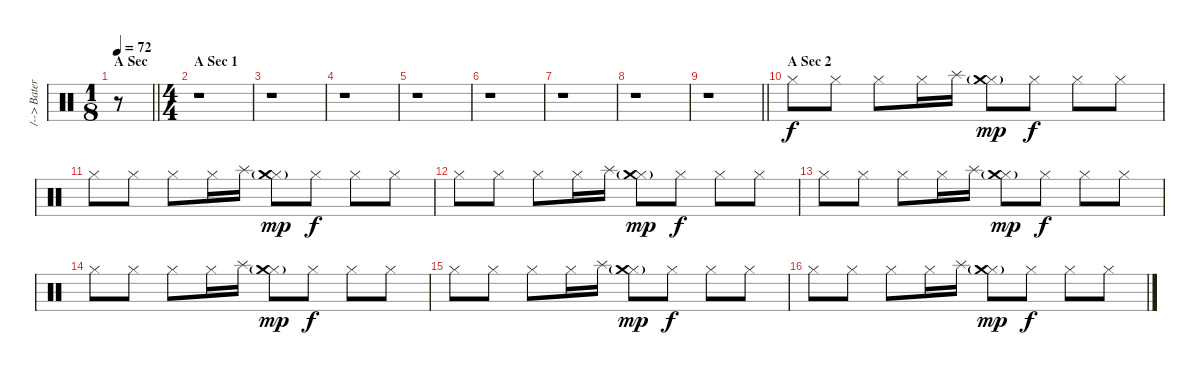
\track ("/--> Bateria <---/" "/--> Bater") {instrument percussion}
\staff {score}
\articulation defaults
\ts (1 8)
\section ("" "A Sec")
\tempo 72
\clef neutral
\barLineRight lightlight
\ks c
r.8{dy f} |
\ts (4 4)
\section ("" "A Sec 1")
r.1 |
r.1 |
r.1 |
r.1 |
r.1 |
r.1 |
r.1 |
\barLineRight lightlight
r.1 |
\section ("" "A Sec 2")
"Hi-Hat (closed)".8 "Hi-Hat (closed)".8 "Hi-Hat (closed)".8 "Hi-Hat (closed)".16{txt ""} "Splash (hit)".16 ("Hi-Hat (closed)" "Crash medium (hit)"{g}).8{dy mp} "Hi-Hat (closed)".8{dy f} "Hi-Hat (closed)".8 "Hi-Hat (closed)".8 |
"Hi-Hat (closed)".8 "Hi-Hat (closed)".8 "Hi-Hat (closed)".8 "Hi-Hat (closed)".16 "Splash (hit)".16 ("Hi-Hat (closed)" "Crash medium (hit)"{g}).8{dy mp} "Hi-Hat (closed)".8{dy f} "Hi-Hat (closed)".8 "Hi-Hat (closed)".8 |
"Hi-Hat (closed)".8 "Hi-Hat (closed)".8 "Hi-Hat (closed)".8 "Hi-Hat (closed)".16 "Splash (hit)".16 ("Hi-Hat (closed)" "Crash medium (hit)"{g}).8{dy mp} "Hi-Hat (closed)".8{dy f} "Hi-Hat (closed)".8 "Hi-Hat (closed)".8 |
"Hi-Hat (closed)".8 "Hi-Hat (closed)".8 "Hi-Hat (closed)".8 "Hi-Hat (closed)".16 "Splash (hit)".16 ("Hi-Hat (closed)" "Crash medium (hit)"{g}).8{dy mp} "Hi-Hat (closed)".8{dy f} "Hi-Hat (closed)".8 "Hi-Hat (closed)".8 |
"Hi-Hat (closed)".8 "Hi-Hat (closed)".8 "Hi-Hat (closed)".8 "Hi-Hat (closed)".16 "Splash (hit)".16 ("Hi-Hat (closed)" "Crash medium (hit)"{g}).8{dy mp} "Hi-Hat (closed)".8{dy f} "Hi-Hat (closed)".8 "Hi-Hat (closed)".8 |
"Hi-Hat (closed)".8 "Hi-Hat (closed)".8 "Hi-Hat (closed)".8 "Hi-Hat (closed)".16{txt ""} "Splash (hit)".16 ("Hi-Hat (closed)" "Crash medium (hit)"{g}).8{dy mp} "Hi-Hat (closed)".8{dy f} "Hi-Hat (closed)".8 "Hi-Hat (closed)".8 |
"Hi-Hat (closed)".8 "Hi-Hat (closed)".8 "Hi-Hat (closed)".8 "Hi-Hat (closed)".16 "Splash (hit)".16 ("Hi-Hat (closed)" "Crash medium (hit)"{g}).8{dy mp} "Hi-Hat (closed)".8{dy f} "Hi-Hat (closed)".8 "Hi-Hat (closed)".8
